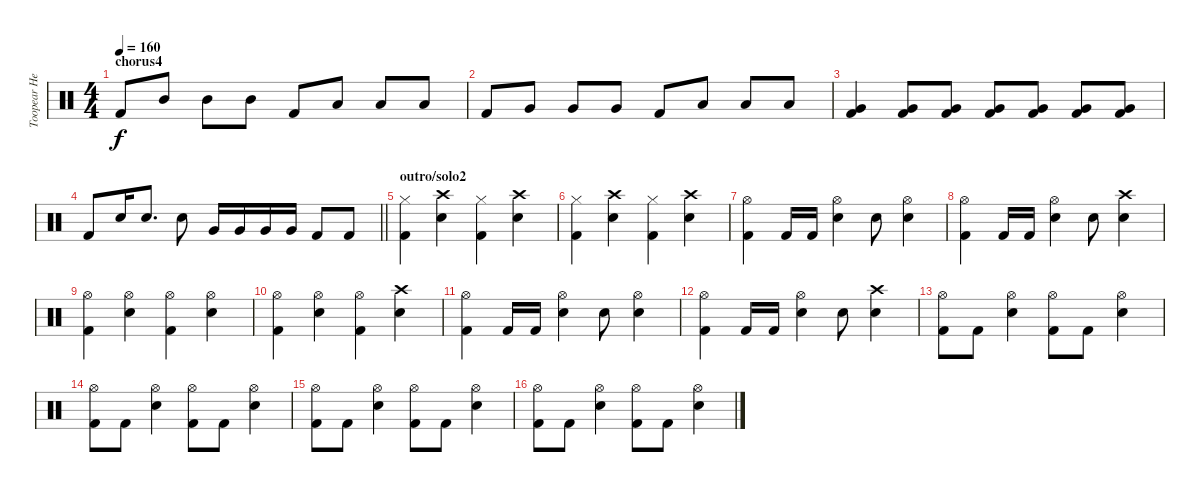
\track ("Toopear Headon" "Toopear He") {instrument percussion}
\staff {score}
\articulation defaults
\ts (4 4)
\section ("" "chorus4")
\tempo 160
\clef neutral
\ks c "Kick (hit) 2".8{dy f} "Mid Tom (hit)".8 "Mid Tom (hit)".8 "Mid Tom (hit)".8 "Kick (hit) 2".8 "Low Tom (hit)".8 "Low Tom (hit)".8 "Low Tom (hit)".8
|
"Kick (hit) 2".8 "Very Low Tom (hit)".8 "Very Low Tom (hit)".8 "Very Low Tom (hit)".8 "Kick (hit) 2".8 "Low Floor Tom (hit)".8 "Low Floor Tom (hit)".8 "Low Floor Tom (hit)".8 |
("Very Low Tom (hit)" "Kick (hit) 2").4 ("Very Low Tom (hit)" "Kick (hit) 2").8 ("Very Low Tom (hit)" "Kick (hit) 2").8 ("Very Low Tom (hit)" "Kick (hit) 2").8 ("Very Low Tom (hit)" "Kick (hit) 2").8 ("Very Low Tom (hit)" "Kick (hit) 2").8 ("Very Low Tom (hit)" "Kick (hit) 2").8 |
\barLineRight lightlight "Kick (hit) 2".8 "Electric Snare (hit)".16 "Electric Snare (hit)".8{d} "Electric Snare (hit)".8 "Very Low Tom (hit)".16 "Very Low Tom (hit)".16 "Very Low Tom (hit)".16 "Very Low Tom (hit)".16 "Kick (hit) 2".8 "Kick (hit) 2".8
|
\section ("" "outro/solo2")
("Hi-Hat (closed)" "Kick (hit) 2").4 ("Crash high (hit)" "Electric Snare (hit)").4 ("Hi-Hat (closed)" "Kick (hit) 2").4 ("Crash high (hit)" "Electric Snare (hit)").4 |
("Hi-Hat (closed)" "Kick (hit) 2").4 ("Crash high (hit)" "Electric Snare (hit)").4 ("Hi-Hat (closed)" "Kick (hit) 2").4 ("Crash high (hit)" "Electric Snare (hit)").4 |
("Hi-Hat (open)" "Kick (hit) 2").4 "Kick (hit) 2".16 "Kick (hit) 2".16 ("Hi-Hat (open)" "Electric Snare (hit)").4 "Electric Snare (hit)".8 ("Hi-Hat (open)" "Electric Snare (hit)").4 |
("Hi-Hat (open)" "Kick (hit) 2").4 "Kick (hit) 2".16 "Kick (hit) 2".16 ("Hi-Hat (open)" "Electric Snare (hit)").4 "Electric Snare (hit)".8 ("Crash high (hit)" "Electric Snare (hit)").4 |
("Hi-Hat (open)" "Kick (hit) 2").4 ("Hi-Hat (open)" "Electric Snare (hit)").4 ("Hi-Hat (open)" "Kick (hit) 2").4 ("Hi-Hat (open)" "Electric Snare (hit)").4 |
("Hi-Hat (open)" "Kick (hit) 2").4 ("Hi-Hat (open)" "Electric Snare (hit)").4 ("Hi-Hat (open)" "Kick (hit) 2").4 ("Crash high (hit)" "Electric Snare (hit)").4 |
("Hi-Hat (open)" "Kick (hit) 2").4 "Kick (hit) 2".16 "Kick (hit) 2".16 ("Hi-Hat (open)" "Electric Snare (hit)").4 "Electric Snare (hit)".8 ("Hi-Hat (open)" "Electric Snare (hit)").4 |
("Hi-Hat (open)" "Kick (hit) 2").4 "Kick (hit) 2".16 "Kick (hit) 2".16 ("Hi-Hat (open)" "Electric Snare (hit)").4 "Electric Snare (hit)".8 ("Crash high (hit)" "Electric Snare (hit)").4 |
("Hi-Hat (open)" "Kick (hit) 2").8 "Kick (hit) 2".8 ("Hi-Hat (open)" "Electric Snare (hit)").4 ("Hi-Hat (open)" "Kick (hit) 2").8 "Kick (hit) 2".8 ("Hi-Hat (open)" "Electric Snare (hit)").4 |
("Hi-Hat (open)" "Kick (hit) 2").8 "Kick (hit) 2".8 ("Hi-Hat (open)" "Electric Snare (hit)").4 ("Hi-Hat (open)" "Kick (hit) 2").8 "Kick (hit) 2".8 ("Hi-Hat (open)" "Electric Snare (hit)").4 |
("Hi-Hat (open)" "Kick (hit) 2").8 "Kick (hit) 2".8 ("Hi-Hat (open)" "Electric Snare (hit)").4 ("Hi-Hat (open)" "Kick (hit) 2").8 "Kick (hit) 2".8 ("Hi-Hat (open)" "Electric Snare (hit)").4 |
("Hi-Hat (open)" "Kick (hit) 2").8 "Kick (hit) 2".8 ("Hi-Hat (open)" "Electric Snare (hit)").4 ("Hi-Hat (open)" "Kick (hit) 2").8 "Kick (hit) 2".8 ("Hi-Hat (open)" "Electric Snare (hit)").4
